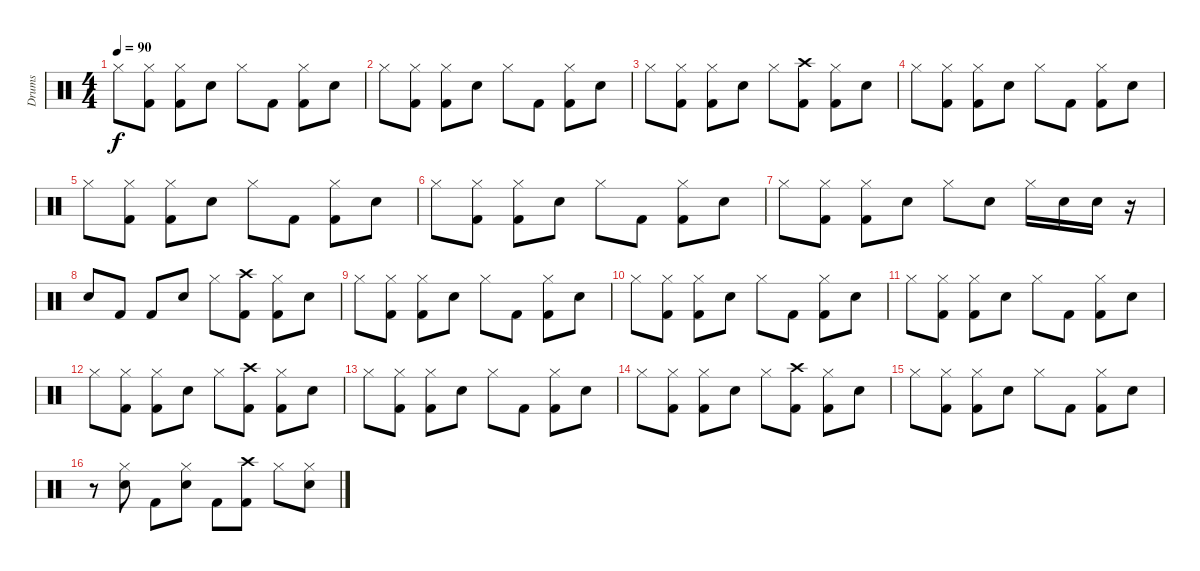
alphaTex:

\track ("Drums" "Drums") {instrument percussion}
\staff {score}
\articulation defaults
\ts (4 4)
\tempo 90
\clef neutral
\ks c "Hi-Hat (closed)".8{dy f}
("Hi-Hat (closed)" "Kick (hit) 2").8 ("Hi-Hat (closed)" "Kick (hit) 2").8 "Snare (hit) 2".8 "Hi-Hat (closed)".8 "Kick (hit) 2".8 ("Hi-Hat (closed)" "Kick (hit) 2").8 "Snare (hit) 2".8 |
"Hi-Hat (closed)".8 ("Hi-Hat (closed)" "Kick (hit) 2").8 ("Hi-Hat (closed)" "Kick (hit) 2").8 "Snare (hit) 2".8 "Hi-Hat (closed)".8 "Kick (hit) 2".8 ("Hi-Hat (closed)" "Kick (hit) 2").8 "Snare (hit) 2".8 |
"Hi-Hat (closed)".8 ("Hi-Hat (closed)" "Kick (hit) 2").8 ("Hi-Hat (closed)" "Kick (hit) 2").8 "Snare (hit) 2".8 "Hi-Hat (closed)".8 ("Crash high (hit)" "Kick (hit) 2").8 ("Hi-Hat (closed)" "Kick (hit) 2").8 "Snare (hit) 2".8 |
"Hi-Hat (closed)".8 ("Hi-Hat (closed)" "Kick (hit) 2").8 ("Hi-Hat (closed)" "Kick (hit) 2").8 "Snare (hit) 2".8 "Hi-Hat (closed)".8 "Kick (hit) 2".8 ("Hi-Hat (closed)" "Kick (hit) 2").8 "Snare (hit) 2".8 |
"Hi-Hat (closed)".8 ("Hi-Hat (closed)" "Kick (hit) 2").8 ("Hi-Hat (closed)" "Kick (hit) 2").8 "Snare (hit) 2".8 "Hi-Hat (closed)".8 "Kick (hit) 2".8 ("Hi-Hat (closed)" "Kick (hit) 2").8 "Snare (hit) 2".8 |
"Hi-Hat (closed)".8 ("Hi-Hat (closed)" "Kick (hit) 2").8 ("Hi-Hat (closed)" "Kick (hit) 2").8 "Snare (hit) 2".8 "Hi-Hat (closed)".8 "Kick (hit) 2".8 ("Hi-Hat (closed)" "Kick (hit) 2").8 "Snare (hit) 2".8 |
"Hi-Hat (closed)".8 ("Hi-Hat (closed)" "Kick (hit) 2").8 ("Hi-Hat (closed)" "Kick (hit) 2").8 "Snare (hit) 2".8 "Hi-Hat (closed)".8 "Snare (hit) 2".8 "Hi-Hat (closed)".16 "Snare (hit) 2".16 "Snare (hit) 2".16 r.16 |
"Snare (hit) 2".8 "Kick (hit) 2".8 "Kick (hit) 2".8 "Snare (hit) 2".8 "Hi-Hat (closed)".8 ("Crash high (hit)" "Kick (hit) 2").8 ("Hi-Hat (closed)" "Kick (hit) 2").8 "Snare (hit) 2".8 |
"Hi-Hat (closed)".8 ("Hi-Hat (closed)" "Kick (hit) 2").8 ("Hi-Hat (closed)" "Kick (hit) 2").8 "Snare (hit) 2".8 "Hi-Hat (closed)".8 "Kick (hit) 2".8 ("Hi-Hat (closed)" "Kick (hit) 2").8 "Snare (hit) 2".8 |
"Hi-Hat (closed)".8 ("Hi-Hat (closed)" "Kick (hit) 2").8 ("Hi-Hat (closed)" "Kick (hit) 2").8 "Snare (hit) 2".8 "Hi-Hat (closed)".8 "Kick (hit) 2".8 ("Hi-Hat (closed)" "Kick (hit) 2").8 "Snare (hit) 2".8 |
"Hi-Hat (closed)".8 ("Hi-Hat (closed)" "Kick (hit) 2").8 ("Hi-Hat (closed)" "Kick (hit) 2").8 "Snare (hit) 2".8 "Hi-Hat (closed)".8 "Kick (hit) 2".8 ("Hi-Hat (closed)" "Kick (hit) 2").8 "Snare (hit) 2".8 |
"Hi-Hat (closed)".8 ("Hi-Hat (closed)" "Kick (hit) 2").8 ("Hi-Hat (closed)" "Kick (hit) 2").8 "Snare (hit) 2".8 "Hi-Hat (closed)".8 ("Crash high (hit)" "Kick (hit) 2").8 ("Hi-Hat (closed)" "Kick (hit) 2").8 "Snare (hit) 2".8 |
"Hi-Hat (closed)".8 ("Hi-Hat (closed)" "Kick (hit) 2").8 ("Hi-Hat (closed)" "Kick (hit) 2").8 "Snare (hit) 2".8 "Hi-Hat (closed)".8 "Kick (hit) 2".8 ("Hi-Hat (closed)" "Kick (hit) 2").8 "Snare (hit) 2".8 |
"Hi-Hat (closed)".8 ("Hi-Hat (closed)" "Kick (hit) 2").8 ("Hi-Hat (closed)" "Kick (hit) 2").8 "Snare (hit) 2".8 "Hi-Hat (closed)".8 ("Crash high (hit)" "Kick (hit) 2").8 ("Hi-Hat (closed)" "Kick (hit) 2").8 "Snare (hit) 2".8 |
"Hi-Hat (closed)".8 ("Hi-Hat (closed)" "Kick (hit) 2").8 ("Hi-Hat (closed)" "Kick (hit) 2").8 "Snare (hit) 2".8 "Hi-Hat (closed)".8 "Kick (hit) 2".8 ("Hi-Hat (closed)" "Kick (hit) 2").8 "Snare (hit) 2".8 |
r.8 ("Hi-Hat (closed)" "Snare (hit) 2").8 "Kick (hit) 2".8 ("Hi-Hat (closed)" "Snare (hit) 2").8 "Kick (hit) 2".8 ("Crash high (hit)" "Kick (hit) 2").8 "Hi-Hat (closed)".8 ("Hi-Hat (closed)" "Snare (hit) 2").8
